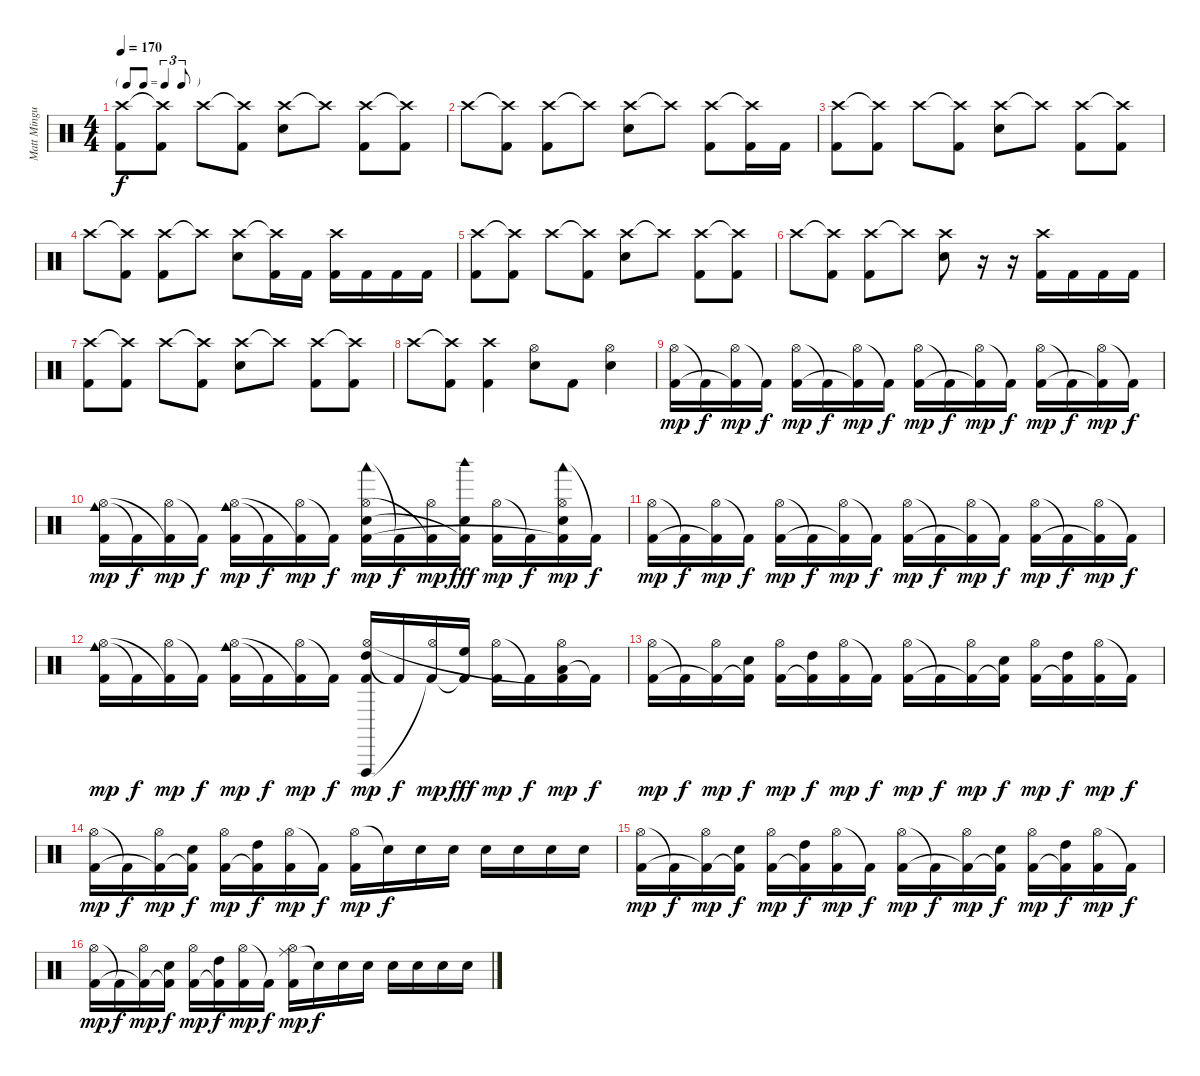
\track ("Matt Mingus" "Matt Mingu") {instrument percussion}
\staff {score}
\articulation defaults
\ts (4 4)
\tf triplet8th
\tempo 170
\clef neutral
\ks c
("Crash high (hit)" "Kick (hit) 2").8{dy f} ("Crash high (hit)"{t} "Kick (hit) 2").8 "Crash high (hit)".8 ("Crash high (hit)"{t} "Kick (hit) 2").8 ("Crash high (hit)" "Electric Snare (hit)").8 "Crash high (hit)"{t}.8 ("Crash high (hit)" "Kick (hit) 2").8 ("Crash high (hit)"{t} "Kick (hit) 2").8 |
"Crash high (hit)".8 ("Crash high (hit)"{t} "Kick (hit) 2").8 ("Crash high (hit)" "Kick (hit) 2").8 "Crash high (hit)"{t}.8 ("Crash high (hit)" "Electric Snare (hit)").8 "Crash high (hit)"{t}.8 ("Crash high (hit)" "Kick (hit) 2").8 ("Crash high (hit)"{t} "Kick (hit) 2").16 "Kick (hit) 2".16 |
("Crash high (hit)" "Kick (hit) 2").8 ("Crash high (hit)"{t} "Kick (hit) 2").8 "Crash high (hit)".8 ("Crash high (hit)"{t} "Kick (hit) 2").8 ("Crash high (hit)" "Electric Snare (hit)").8 "Crash high (hit)"{t}.8 ("Crash high (hit)" "Kick (hit) 2").8 ("Crash high (hit)"{t} "Kick (hit) 2").8 |
"Crash high (hit)".8 ("Crash high (hit)"{t} "Kick (hit) 2").8 ("Crash high (hit)" "Kick (hit) 2").8 "Crash high (hit)"{t}.8 ("Crash high (hit)" "Electric Snare (hit)").8 ("Crash high (hit)"{t} "Kick (hit) 2").16 "Kick (hit) 2".16 ("Crash high (hit)" "Kick (hit) 2").16 "Kick (hit) 2".16 "Kick (hit) 2".16 "Kick (hit) 2".16 |
("Crash high (hit)" "Kick (hit) 2").8 ("Crash high (hit)"{t} "Kick (hit) 2").8 "Crash high (hit)".8 ("Crash high (hit)"{t} "Kick (hit) 2").8 ("Crash high (hit)" "Electric Snare (hit)").8 "Crash high (hit)"{t}.8 ("Crash high (hit)" "Kick (hit) 2").8 ("Crash high (hit)"{t} "Kick (hit) 2").8 |
"Crash high (hit)".8 ("Crash high (hit)"{t} "Kick (hit) 2").8 ("Crash high (hit)" "Kick (hit) 2").8 "Crash high (hit)"{t}.8 ("Crash high (hit)" "Electric Snare (hit)").8 r.16 r.16 ("Crash high (hit)" "Kick (hit) 2").16 "Kick (hit) 2".16 "Kick (hit) 2".16 "Kick (hit) 2".16 |
("Crash high (hit)" "Kick (hit) 2").8 ("Crash high (hit)"{t} "Kick (hit) 2").8 "Crash high (hit)".8 ("Crash high (hit)"{t} "Kick (hit) 2").8 ("Crash high (hit)" "Electric Snare (hit)").8 "Crash high (hit)"{t}.8 ("Crash high (hit)" "Kick (hit) 2").8 ("Crash high (hit)"{t} "Kick (hit) 2").8 |
"Crash high (hit)".8 ("Crash high (hit)"{t} "Kick (hit) 2").8 ("Crash high (hit)" "Kick (hit) 2").4 ("Hi-Hat (open)" "Electric Snare (hit)").8 "Kick (hit) 2".8 ("Hi-Hat (open)" "Electric Snare (hit)").4 |
("Hi-Hat (open)" "Kick (hit) 2").16{dy mp} "Kick (hit) 2"{t}.16{dy f} ("Hi-Hat (open)" "Kick (hit) 2"{t}).16{dy mp} "Kick (hit) 2"{t}.16{dy f} ("Hi-Hat (open)" "Kick (hit) 2").16{dy mp} "Kick (hit) 2"{t}.16{dy f} ("Hi-Hat (open)" "Kick (hit) 2"{t}).16{dy mp} "Kick (hit) 2"{t}.16{dy f} ("Hi-Hat (open)" "Kick (hit) 2").16{dy mp} "Kick (hit) 2"{t}.16{dy f} ("Hi-Hat (open)" "Kick (hit) 2"{t}).16{dy mp} "Kick (hit) 2"{t}.16{dy f} ("Hi-Hat (open)" "Kick (hit) 2").16{dy mp} "Kick (hit) 2"{t}.16{dy f} ("Hi-Hat (open)" "Kick (hit) 2"{t}).16{dy mp} "Kick (hit) 2"{t}.16{dy f} |
("Cowbell medium (hit)" "Hi-Hat (open)" "Kick (hit) 2").16{dy mp} "Kick (hit) 2"{t}.16{dy f} ("Hi-Hat (open)" "Kick (hit) 2"{t}).16{dy mp} "Kick (hit) 2"{t}.16{dy f} ("Cowbell medium (hit)" "Hi-Hat (open)" "Kick (hit) 2").16{dy mp} "Kick (hit) 2"{t}.16{dy f} ("Hi-Hat (open)" "Kick (hit) 2"{t}).16{dy mp} "Kick (hit) 2"{t}.16{dy f} ("Woodblock low (hit)" "Hi-Hat (open)" "Electric Snare (hit)" "Kick (hit) 2").16{dy mp} "Kick (hit) 2"{t}.16{dy f} ("Hi-Hat (open)" "Kick (hit) 2"{t}).16{dy mp} ("Woodblock high (hit)" "Electric Snare (hit)" "Kick (hit) 2"{t}).16{dy fff} ("Hi-Hat (open)" "Kick (hit) 2").16{dy mp} "Kick (hit) 2"{t}.16{dy f} ("Woodblock low (hit)" "Hi-Hat (open)" "Electric Snare (hit)" "Kick (hit) 2"{t}).16{dy mp} "Kick (hit) 2"{t}.16{dy f} |
("Hi-Hat (open)" "Kick (hit) 2").16{dy mp} "Kick (hit) 2"{t}.16{dy f} ("Hi-Hat (open)" "Kick (hit) 2"{t}).16{dy mp} "Kick (hit) 2"{t}.16{dy f} ("Hi-Hat (open)" "Kick (hit) 2").16{dy mp} "Kick (hit) 2"{t}.16{dy f} ("Hi-Hat (open)" "Kick (hit) 2"{t}).16{dy mp} "Kick (hit) 2"{t}.16{dy f} ("Hi-Hat (open)" "Kick (hit) 2").16{dy mp} "Kick (hit) 2"{t}.16{dy f} ("Hi-Hat (open)" "Kick (hit) 2"{t}).16{dy mp} "Kick (hit) 2"{t}.16{dy f} ("Hi-Hat (open)" "Kick (hit) 2").16{dy mp} "Kick (hit) 2"{t}.16{dy f} ("Hi-Hat (open)" "Kick (hit) 2"{t}).16{dy mp} "Kick (hit) 2"{t}.16{dy f} |
("Cowbell medium (hit)" "Hi-Hat (open)" "Kick (hit) 2").16{dy mp} "Kick (hit) 2"{t}.16{dy f} ("Hi-Hat (open)" "Kick (hit) 2"{t}).16{dy mp} "Kick (hit) 2"{t}.16{dy f} ("Cowbell medium (hit)" "Hi-Hat (open)" "Kick (hit) 2").16{dy mp} "Kick (hit) 2"{t}.16{dy f} ("Hi-Hat (open)" "Kick (hit) 2"{t}).16{dy mp} "Kick (hit) 2"{t}.16{dy f} ("High Tom (hit)" "Vibraslap (hit)" "Hi-Hat (open)" "Kick (hit) 2").16{dy mp} "Kick (hit) 2"{t}.16{dy f} ("Hi-Hat (open)" "Kick (hit) 2"{t}).16{dy mp} ("High Floor Tom (hit)" "Kick (hit) 2"{t}).16{dy fff} ("Hi-Hat (open)" "Kick (hit) 2").16{dy mp} "Kick (hit) 2"{t}.16{dy f} ("Low Floor Tom (hit)" "Hi-Hat (open)" "Kick (hit) 2"{t}).16{dy mp} "Kick (hit) 2"{t}.16{dy f} |
("Hi-Hat (open)" "Kick (hit) 2").16{dy mp} "Kick (hit) 2"{t}.16{dy f} ("Hi-Hat (open)" "Kick (hit) 2"{t}).16{dy mp} ("Electric Snare (hit)" "Kick (hit) 2"{t}).16{dy f} ("Hi-Hat (open)" "Kick (hit) 2").16{dy mp} ("High Tom (hit)" "Kick (hit) 2"{t}).16{dy f} ("Hi-Hat (open)" "Kick (hit) 2").16{dy mp} "Kick (hit) 2"{t}.16{dy f} ("Hi-Hat (open)" "Kick (hit) 2").16{dy mp} "Kick (hit) 2"{t}.16{dy f} ("Hi-Hat (open)" "Kick (hit) 2"{t}).16{dy mp} ("Electric Snare (hit)" "Kick (hit) 2"{t}).16{dy f} ("Hi-Hat (open)" "Kick (hit) 2").16{dy mp} ("High Tom (hit)" "Kick (hit) 2"{t}).16{dy f} ("Hi-Hat (open)" "Kick (hit) 2").16{dy mp} "Kick (hit) 2"{t}.16{dy f} |
("Hi-Hat (open)" "Kick (hit) 2").16{dy mp} "Kick (hit) 2"{t}.16{dy f} ("Hi-Hat (open)" "Kick (hit) 2"{t}).16{dy mp} ("Electric Snare (hit)" "Kick (hit) 2"{t}).16{dy f} ("Hi-Hat (open)" "Kick (hit) 2").16{dy mp} ("High Tom (hit)" "Kick (hit) 2"{t}).16{dy f} ("Hi-Hat (open)" "Kick (hit) 2").16{dy mp} "Kick (hit) 2"{t}.16{dy f} ("Hi-Hat (open)" "Kick (hit) 2").16{dy mp} "Snare (hit)"{t}.16{dy f} "Electric Snare (hit)".16 "Electric Snare (hit)".16 "Electric Snare (hit)".16 "Electric Snare (hit)".16 "Electric Snare (hit)".16 "Electric Snare (hit)".16 |
("Hi-Hat (open)" "Kick (hit) 2").16{dy mp} "Kick (hit) 2"{t}.16{dy f} ("Hi-Hat (open)" "Kick (hit) 2"{t}).16{dy mp} ("Electric Snare (hit)" "Kick (hit) 2"{t}).16{dy f} ("Hi-Hat (open)" "Kick (hit) 2").16{dy mp} ("High Tom (hit)" "Kick (hit) 2"{t}).16{dy f} ("Hi-Hat (open)" "Kick (hit) 2").16{dy mp} "Kick (hit) 2"{t}.16{dy f} ("Hi-Hat (open)" "Kick (hit) 2").16{dy mp} "Kick (hit) 2"{t}.16{dy f} ("Hi-Hat (open)" "Kick (hit) 2"{t}).16{dy mp} ("Electric Snare (hit)" "Kick (hit) 2"{t}).16{dy f} ("Hi-Hat (open)" "Kick (hit) 2").16{dy mp} ("High Tom (hit)" "Kick (hit) 2"{t}).16{dy f} ("Hi-Hat (open)" "Kick (hit) 2").16{dy mp} "Kick (hit) 2"{t}.16{dy f} |
("Hi-Hat (open)" "Kick (hit) 2").16{dy mp} "Kick (hit) 2"{t}.16{dy f} ("Hi-Hat (open)" "Kick (hit) 2"{t}).16{dy mp} ("Electric Snare (hit)" "Kick (hit) 2"{t}).16{dy f} ("Hi-Hat (open)" "Kick (hit) 2").16{dy mp} ("High Tom (hit)" "Kick (hit) 2"{t}).16{dy f} ("Hi-Hat (open)" "Kick (hit) 2").16{dy mp} "Kick (hit) 2"{t}.16{dy f} ("Ride (middle)" "Hi-Hat (open)" "Kick (hit) 2").16{dy mp} "Snare (hit)"{t}.16{dy f} "Electric Snare (hit)".16 "Electric Snare (hit)".16 "Electric Snare (hit)".16 "Electric Snare (hit)".16 "Electric Snare (hit)".16 "Electric Snare (hit)".16
